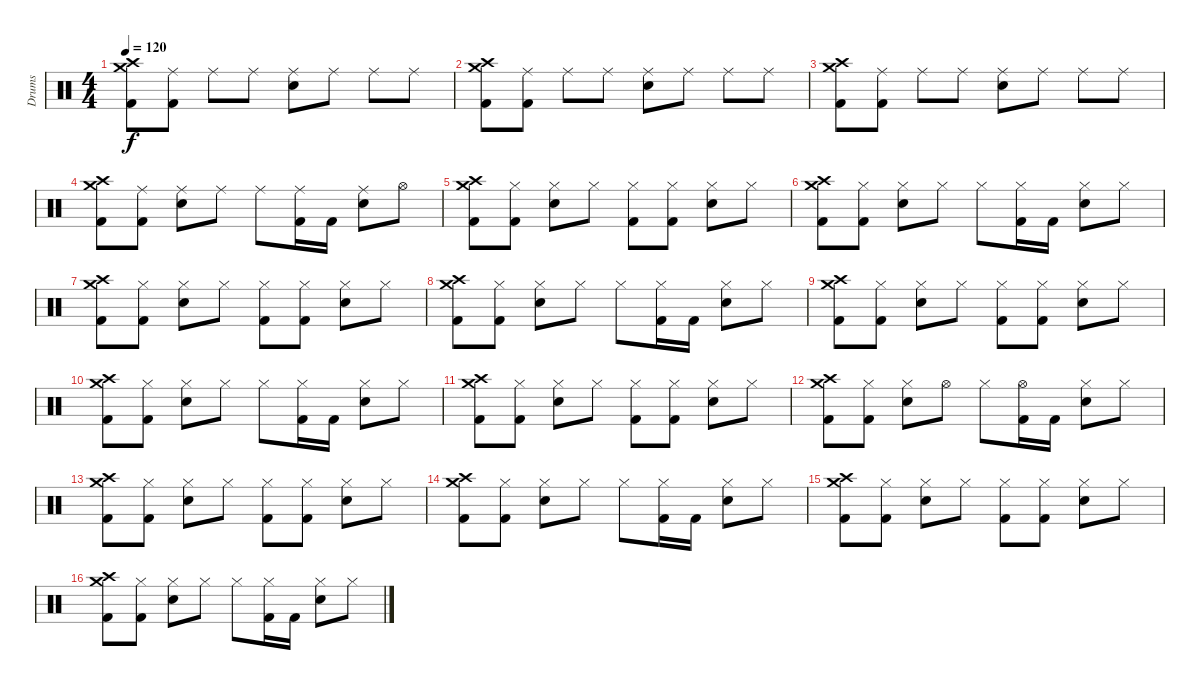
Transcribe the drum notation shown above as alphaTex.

\track ("Drums" "Drums") {instrument percussion}
\staff {score}
\articulation defaults
\ts (4 4)
\tempo 120
\clef neutral
\ks c
("Crash high (hit)" "Crash medium (hit)" "Kick (hit) 2").8{dy f} ("Ride (middle)" "Kick (hit) 2").8 "Ride (middle)".8 "Ride (middle)".8 ("Ride (middle)" "Snare (hit) 2").8 "Ride (middle)".8 "Ride (middle)".8 "Ride (middle)".8 |
("Crash high (hit)" "Crash medium (hit)" "Kick (hit) 2").8 ("Ride (middle)" "Kick (hit) 2").8 "Ride (middle)".8 "Ride (middle)".8 ("Ride (middle)" "Snare (hit) 2").8 "Ride (middle)".8 "Ride (middle)".8 "Ride (middle)".8 |
("Crash high (hit)" "Crash medium (hit)" "Kick (hit) 2").8 ("Ride (middle)" "Kick (hit) 2").8 "Ride (middle)".8 "Ride (middle)".8 ("Ride (middle)" "Snare (hit) 2").8 "Ride (middle)".8 "Ride (middle)".8 "Ride (middle)".8 |
("Crash high (hit)" "Crash medium (hit)" "Kick (hit) 2").8 ("Ride (middle)" "Kick (hit) 2").8 ("Ride (middle)" "Snare (hit) 2").8 "Ride (middle)".8 "Ride (middle)".8 ("Ride (middle)" "Kick (hit) 2").16 "Kick (hit) 2".16 ("Ride (middle)" "Snare (hit) 2").8 "Hi-Hat (open)".8 |
("Crash high (hit)" "Crash medium (hit)" "Kick (hit) 2").8 ("Hi-Hat (closed)" "Kick (hit) 2").8 ("Hi-Hat (closed)" "Snare (hit) 2").8 "Hi-Hat (closed)".8 ("Hi-Hat (closed)" "Kick (hit) 2").8 ("Hi-Hat (closed)" "Kick (hit) 2").8 ("Hi-Hat (closed)" "Snare (hit) 2").8 "Hi-Hat (closed)".8 |
("Crash high (hit)" "Crash medium (hit)" "Kick (hit) 2").8 ("Hi-Hat (closed)" "Kick (hit) 2").8 ("Hi-Hat (closed)" "Snare (hit) 2").8 "Hi-Hat (closed)".8 "Hi-Hat (closed)".8 ("Hi-Hat (closed)" "Kick (hit) 2").16 "Kick (hit) 2".16 ("Hi-Hat (closed)" "Snare (hit) 2").8 "Hi-Hat (closed)".8 |
("Crash high (hit)" "Crash medium (hit)" "Kick (hit) 2").8 ("Hi-Hat (closed)" "Kick (hit) 2").8 ("Hi-Hat (closed)" "Snare (hit) 2").8 "Hi-Hat (closed)".8 ("Hi-Hat (closed)" "Kick (hit) 2").8 ("Hi-Hat (closed)" "Kick (hit) 2").8 ("Hi-Hat (closed)" "Snare (hit) 2").8 "Hi-Hat (closed)".8 |
("Crash high (hit)" "Crash medium (hit)" "Kick (hit) 2").8 ("Hi-Hat (closed)" "Kick (hit) 2").8 ("Hi-Hat (closed)" "Snare (hit) 2").8 "Hi-Hat (closed)".8 "Hi-Hat (closed)".8 ("Hi-Hat (closed)" "Kick (hit) 2").16 "Kick (hit) 2".16 ("Hi-Hat (closed)" "Snare (hit) 2").8 "Hi-Hat (closed)".8 |
("Crash high (hit)" "Crash medium (hit)" "Kick (hit) 2").8 ("Hi-Hat (closed)" "Kick (hit) 2").8 ("Hi-Hat (closed)" "Snare (hit) 2").8 "Hi-Hat (closed)".8 ("Hi-Hat (closed)" "Kick (hit) 2").8 ("Hi-Hat (closed)" "Kick (hit) 2").8 ("Hi-Hat (closed)" "Snare (hit) 2").8 "Hi-Hat (closed)".8 |
("Crash high (hit)" "Crash medium (hit)" "Kick (hit) 2").8 ("Hi-Hat (closed)" "Kick (hit) 2").8 ("Hi-Hat (closed)" "Snare (hit) 2").8 "Hi-Hat (closed)".8 "Hi-Hat (closed)".8 ("Hi-Hat (closed)" "Kick (hit) 2").16 "Kick (hit) 2".16 ("Hi-Hat (closed)" "Snare (hit) 2").8 "Hi-Hat (closed)".8 |
("Crash high (hit)" "Crash medium (hit)" "Kick (hit) 2").8 ("Hi-Hat (closed)" "Kick (hit) 2").8 ("Hi-Hat (closed)" "Snare (hit) 2").8 "Hi-Hat (closed)".8 ("Hi-Hat (closed)" "Kick (hit) 2").8 ("Hi-Hat (closed)" "Kick (hit) 2").8 ("Hi-Hat (closed)" "Snare (hit) 2").8 "Hi-Hat (closed)".8 |
("Crash high (hit)" "Crash medium (hit)" "Kick (hit) 2").8 ("Hi-Hat (closed)" "Kick (hit) 2").8 ("Hi-Hat (closed)" "Snare (hit) 2").8 "Hi-Hat (open)".8 "Hi-Hat (closed)".8 ("Hi-Hat (open)" "Kick (hit) 2").16 "Kick (hit) 2".16 ("Hi-Hat (closed)" "Snare (hit) 2").8 "Hi-Hat (closed)".8 |
("Crash high (hit)" "Crash medium (hit)" "Kick (hit) 2").8 ("Hi-Hat (closed)" "Kick (hit) 2").8 ("Hi-Hat (closed)" "Snare (hit) 2").8 "Hi-Hat (closed)".8 ("Hi-Hat (closed)" "Kick (hit) 2").8 ("Hi-Hat (closed)" "Kick (hit) 2").8 ("Hi-Hat (closed)" "Snare (hit) 2").8 "Hi-Hat (closed)".8 |
("Crash high (hit)" "Crash medium (hit)" "Kick (hit) 2").8 ("Hi-Hat (closed)" "Kick (hit) 2").8 ("Hi-Hat (closed)" "Snare (hit) 2").8 "Hi-Hat (closed)".8 "Hi-Hat (closed)".8 ("Hi-Hat (closed)" "Kick (hit) 2").16 "Kick (hit) 2".16 ("Hi-Hat (closed)" "Snare (hit) 2").8 "Hi-Hat (closed)".8 |
("Crash high (hit)" "Crash medium (hit)" "Kick (hit) 2").8 ("Hi-Hat (closed)" "Kick (hit) 2").8 ("Hi-Hat (closed)" "Snare (hit) 2").8 "Hi-Hat (closed)".8 ("Hi-Hat (closed)" "Kick (hit) 2").8 ("Hi-Hat (closed)" "Kick (hit) 2").8 ("Hi-Hat (closed)" "Snare (hit) 2").8 "Hi-Hat (closed)".8 |
("Crash high (hit)" "Crash medium (hit)" "Kick (hit) 2").8 ("Hi-Hat (closed)" "Kick (hit) 2").8 ("Hi-Hat (closed)" "Snare (hit) 2").8 "Hi-Hat (closed)".8 "Hi-Hat (closed)".8 ("Hi-Hat (closed)" "Kick (hit) 2").16 "Kick (hit) 2".16 ("Hi-Hat (closed)" "Snare (hit) 2").8 "Hi-Hat (closed)".8
